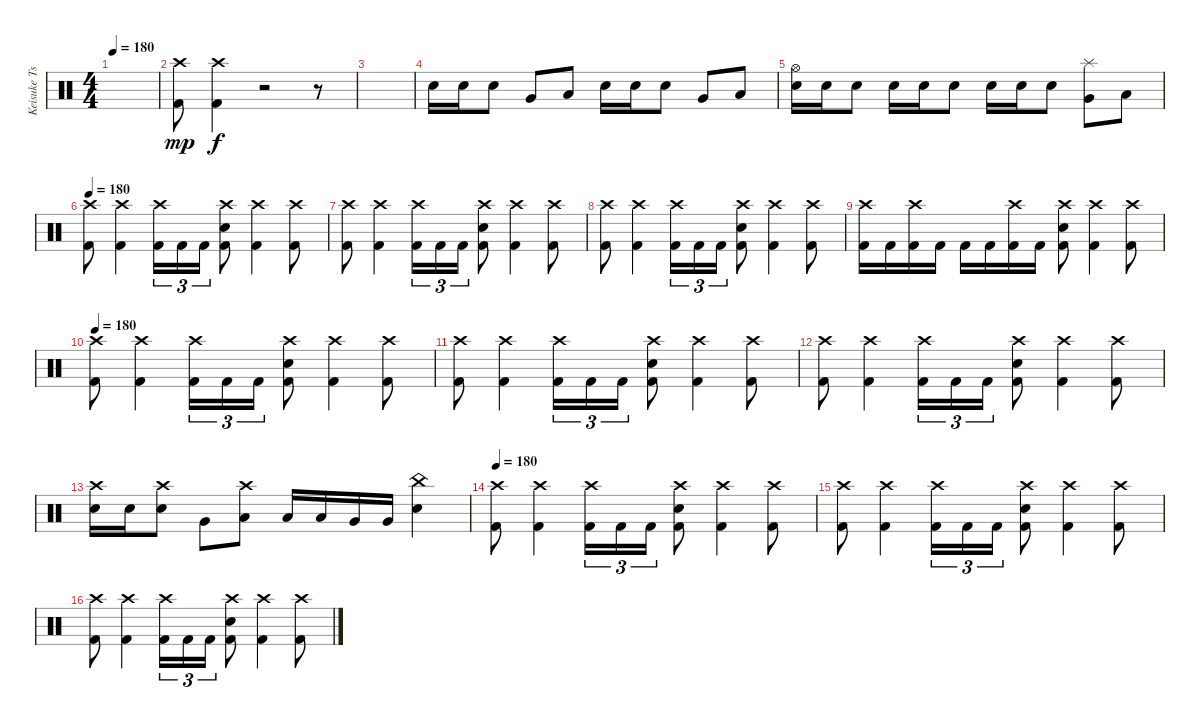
\track ("Keisuke Tsuboi" "Keisuke Ts") {instrument percussion}
\staff {score}
\articulation defaults
\ts (4 4)
\tempo 180
\clef neutral
\ks c
|
("Crash high (hit)" "Kick (hit) 2").8{dy mp} ("Crash high (hit)" "Kick (hit) 2").4{dy f} r.2 r.8 |
|
"Electric Snare (hit)".16 "Electric Snare (hit)".16 "Electric Snare (hit)".8 "Very Low Tom (hit)".8 "Low Floor Tom (hit)".8 "Electric Snare (hit)".16 "Electric Snare (hit)".16 "Electric Snare (hit)".8 "Very Low Tom (hit)".8 "Low Floor Tom (hit)".8 |
("Hi-Hat (open)" "Electric Snare (hit)").16 "Electric Snare (hit)".16 "Electric Snare (hit)".8 "Electric Snare (hit)".16 "Electric Snare (hit)".16 "Electric Snare (hit)".8 "Electric Snare (hit)".16 "Electric Snare (hit)".16 "Electric Snare (hit)".8 ("Splash (hit)" "Very Low Tom (hit)").8 "Low Floor Tom (hit)".8 |
\tempo 180
("Crash high (hit)" "Kick (hit) 2").8 ("Crash high (hit)" "Kick (hit) 2").4 ("Crash high (hit)" "Kick (hit) 2").16{tu (3 2)} "Kick (hit) 2".16{tu (3 2)} "Kick (hit) 2".16{tu (3 2)} ("Crash high (hit)" "Electric Snare (hit)" "Kick (hit) 2").8 ("Crash high (hit)" "Kick (hit) 2").4 ("Crash high (hit)" "Kick (hit) 2").8 |
("Crash high (hit)" "Kick (hit) 2").8 ("Crash high (hit)" "Kick (hit) 2").4 ("Crash high (hit)" "Kick (hit) 2").16{tu (3 2)} "Kick (hit) 2".16{tu (3 2)} "Kick (hit) 2".16{tu (3 2)} ("Crash high (hit)" "Electric Snare (hit)" "Kick (hit) 2").8 ("Crash high (hit)" "Kick (hit) 2").4 ("Crash high (hit)" "Kick (hit) 2").8 |
("Crash high (hit)" "Kick (hit) 2").8 ("Crash high (hit)" "Kick (hit) 2").4 ("Crash high (hit)" "Kick (hit) 2").16{tu (3 2)} "Kick (hit) 2".16{tu (3 2)} "Kick (hit) 2".16{tu (3 2)} ("Crash high (hit)" "Electric Snare (hit)" "Kick (hit) 2").8 ("Crash high (hit)" "Kick (hit) 2").4 ("Crash high (hit)" "Kick (hit) 2").8 |
("Crash high (hit)" "Kick (hit) 2").16 "Kick (hit) 2".16 ("Crash high (hit)" "Kick (hit) 2").16 "Kick (hit) 2".16 "Kick (hit) 2".16 "Kick (hit) 2".16 ("Crash high (hit)" "Kick (hit) 2").16 "Kick (hit) 2".16 ("Crash high (hit)" "Electric Snare (hit)" "Kick (hit) 2").8 ("Crash high (hit)" "Kick (hit) 2").4 ("Crash high (hit)" "Kick (hit) 2").8 |
\tempo 180
("Crash high (hit)" "Kick (hit) 2").8 ("Crash high (hit)" "Kick (hit) 2").4 ("Crash high (hit)" "Kick (hit) 2").16{tu (3 2)} "Kick (hit) 2".16{tu (3 2)} "Kick (hit) 2".16{tu (3 2)} ("Crash high (hit)" "Electric Snare (hit)" "Kick (hit) 2").8 ("Crash high (hit)" "Kick (hit) 2").4 ("Crash high (hit)" "Kick (hit) 2").8 |
("Crash high (hit)" "Kick (hit) 2").8 ("Crash high (hit)" "Kick (hit) 2").4 ("Crash high (hit)" "Kick (hit) 2").16{tu (3 2)} "Kick (hit) 2".16{tu (3 2)} "Kick (hit) 2".16{tu (3 2)} ("Crash high (hit)" "Electric Snare (hit)" "Kick (hit) 2").8 ("Crash high (hit)" "Kick (hit) 2").4 ("Crash high (hit)" "Kick (hit) 2").8 |
("Crash high (hit)" "Kick (hit) 2").8 ("Crash high (hit)" "Kick (hit) 2").4 ("Crash high (hit)" "Kick (hit) 2").16{tu (3 2)} "Kick (hit) 2".16{tu (3 2)} "Kick (hit) 2".16{tu (3 2)} ("Crash high (hit)" "Electric Snare (hit)" "Kick (hit) 2").8 ("Crash high (hit)" "Kick (hit) 2").4 ("Crash high (hit)" "Kick (hit) 2").8 |
("Crash high (hit)" "Electric Snare (hit)").16 "Electric Snare (hit)".16 ("Crash high (hit)" "Electric Snare (hit)").8 "Very Low Tom (hit)".8 ("Crash high (hit)" "Low Floor Tom (hit)").8 "Low Tom (hit)".16 "Low Tom (hit)".16 "Very Low Tom (hit)".16 "Very Low Tom (hit)".16 ("China (hit)" "Electric Snare (hit)").4 |
\tempo 180
("Crash high (hit)" "Kick (hit) 2").8 ("Crash high (hit)" "Kick (hit) 2").4 ("Crash high (hit)" "Kick (hit) 2").16{tu (3 2)} "Kick (hit) 2".16{tu (3 2)} "Kick (hit) 2".16{tu (3 2)} ("Crash high (hit)" "Electric Snare (hit)" "Kick (hit) 2").8 ("Crash high (hit)" "Kick (hit) 2").4 ("Crash high (hit)" "Kick (hit) 2").8 |
("Crash high (hit)" "Kick (hit) 2").8 ("Crash high (hit)" "Kick (hit) 2").4 ("Crash high (hit)" "Kick (hit) 2").16{tu (3 2)} "Kick (hit) 2".16{tu (3 2)} "Kick (hit) 2".16{tu (3 2)} ("Crash high (hit)" "Electric Snare (hit)" "Kick (hit) 2").8 ("Crash high (hit)" "Kick (hit) 2").4 ("Crash high (hit)" "Kick (hit) 2").8 |
("Crash high (hit)" "Kick (hit) 2").8 ("Crash high (hit)" "Kick (hit) 2").4 ("Crash high (hit)" "Kick (hit) 2").16{tu (3 2)} "Kick (hit) 2".16{tu (3 2)} "Kick (hit) 2".16{tu (3 2)} ("Crash high (hit)" "Electric Snare (hit)" "Kick (hit) 2").8 ("Crash high (hit)" "Kick (hit) 2").4 ("Crash high (hit)" "Kick (hit) 2").8
